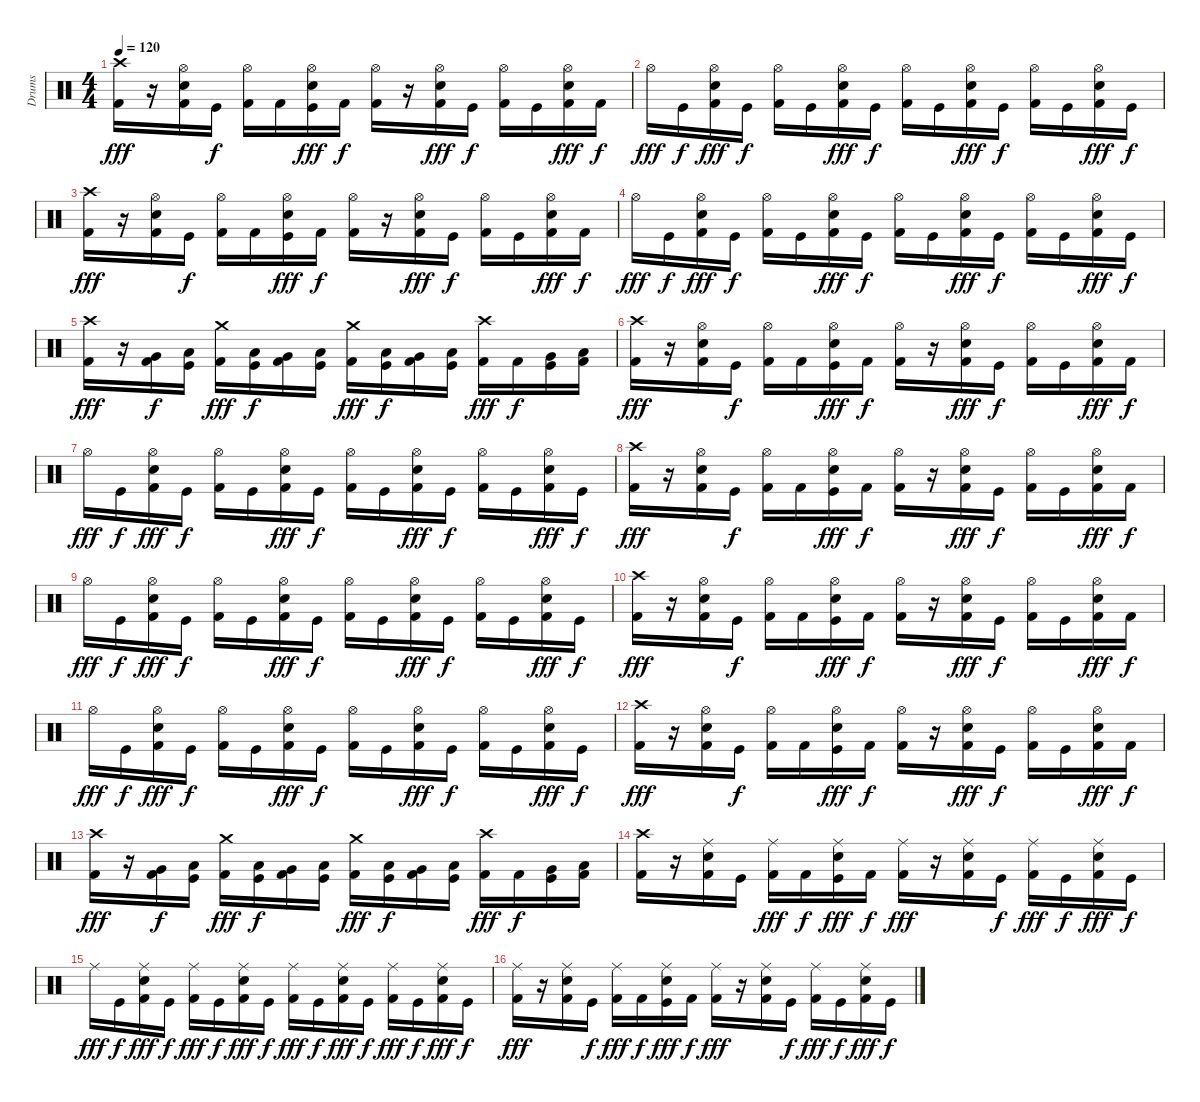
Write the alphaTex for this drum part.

\track ("Drums" "Drums") {instrument percussion}
\staff {score}
\articulation defaults
\ts (4 4)
\tempo 120
\clef neutral
\ks c
("Crash high (hit)" "Kick (hit) 2").16{dy fff} r.16 ("Hi-Hat (open)" "Snare (hit) 2" "Kick (hit) 2").16 "Kick (hit)".16{dy f} ("Hi-Hat (open)" "Kick (hit) 2").16 "Kick (hit) 2".16 ("Hi-Hat (open)" "Snare (hit) 2" "Kick (hit)").16{dy fff} "Kick (hit) 2".16{dy f} ("Hi-Hat (open)" "Kick (hit) 2").16 r.16 ("Hi-Hat (open)" "Snare (hit) 2" "Kick (hit) 2").16{dy fff} "Kick (hit)".16{dy f} ("Hi-Hat (open)" "Kick (hit) 2").16 "Kick (hit)".16 ("Hi-Hat (open)" "Snare (hit) 2" "Kick (hit) 2").16{dy fff} "Kick (hit) 2".16{dy f} |
"Hi-Hat (open)".16{dy fff} "Kick (hit)".16{dy f} ("Hi-Hat (open)" "Snare (hit) 2" "Kick (hit) 2").16{dy fff} "Kick (hit)".16{dy f} ("Hi-Hat (open)" "Kick (hit) 2").16 "Kick (hit)".16 ("Hi-Hat (open)" "Snare (hit) 2" "Kick (hit) 2").16{dy fff} "Kick (hit)".16{dy f} ("Hi-Hat (open)" "Kick (hit) 2").16 "Kick (hit)".16 ("Hi-Hat (open)" "Snare (hit) 2" "Kick (hit) 2").16{dy fff} "Kick (hit)".16{dy f} ("Hi-Hat (open)" "Kick (hit) 2").16 "Kick (hit)".16 ("Hi-Hat (open)" "Snare (hit) 2" "Kick (hit) 2").16{dy fff} "Kick (hit)".16{dy f} |
("Crash high (hit)" "Kick (hit) 2").16{dy fff} r.16 ("Hi-Hat (open)" "Snare (hit) 2" "Kick (hit) 2").16 "Kick (hit)".16{dy f} ("Hi-Hat (open)" "Kick (hit) 2").16 "Kick (hit) 2".16 ("Hi-Hat (open)" "Snare (hit) 2" "Kick (hit)").16{dy fff} "Kick (hit) 2".16{dy f} ("Hi-Hat (open)" "Kick (hit) 2").16 r.16 ("Hi-Hat (open)" "Snare (hit) 2" "Kick (hit) 2").16{dy fff} "Kick (hit)".16{dy f} ("Hi-Hat (open)" "Kick (hit) 2").16 "Kick (hit)".16 ("Hi-Hat (open)" "Snare (hit) 2" "Kick (hit) 2").16{dy fff} "Kick (hit) 2".16{dy f} |
"Hi-Hat (open)".16{dy fff} "Kick (hit)".16{dy f} ("Hi-Hat (open)" "Snare (hit) 2" "Kick (hit) 2").16{dy fff} "Kick (hit)".16{dy f} ("Hi-Hat (open)" "Kick (hit) 2").16 "Kick (hit)".16 ("Hi-Hat (open)" "Snare (hit) 2" "Kick (hit) 2").16{dy fff} "Kick (hit)".16{dy f} ("Hi-Hat (open)" "Kick (hit) 2").16 "Kick (hit)".16 ("Hi-Hat (open)" "Snare (hit) 2" "Kick (hit) 2").16{dy fff} "Kick (hit)".16{dy f} ("Hi-Hat (open)" "Kick (hit) 2").16 "Kick (hit)".16 ("Hi-Hat (open)" "Snare (hit) 2" "Kick (hit) 2").16{dy fff} "Kick (hit)".16{dy f} |
("Crash high (hit)" "Kick (hit) 2").16{dy fff} r.16 ("Very Low Tom (hit)" "Kick (hit) 2").16{dy f} ("Low Floor Tom (hit)" "Kick (hit)").16 ("Crash medium (hit)" "Kick (hit) 2").16{dy fff} ("Low Tom (hit)" "Kick (hit)").16{dy f} ("Very Low Tom (hit)" "Kick (hit) 2").16 ("Low Floor Tom (hit)" "Kick (hit)").16 ("Crash medium (hit)" "Kick (hit) 2").16{dy fff} ("Low Tom (hit)" "Kick (hit)").16{dy f} ("Very Low Tom (hit)" "Kick (hit) 2").16 ("Low Floor Tom (hit)" "Kick (hit)").16 ("Crash high (hit)" "Kick (hit) 2").16{dy fff} "Kick (hit) 2".16{dy f} ("Very Low Tom (hit)" "Kick (hit)").16 ("Low Floor Tom (hit)" "Kick (hit) 2").16 |
("Crash high (hit)" "Kick (hit) 2").16{dy fff} r.16 ("Hi-Hat (open)" "Snare (hit) 2" "Kick (hit) 2").16 "Kick (hit)".16{dy f} ("Hi-Hat (open)" "Kick (hit) 2").16 "Kick (hit) 2".16 ("Hi-Hat (open)" "Snare (hit) 2" "Kick (hit)").16{dy fff} "Kick (hit) 2".16{dy f} ("Hi-Hat (open)" "Kick (hit) 2").16 r.16 ("Hi-Hat (open)" "Snare (hit) 2" "Kick (hit) 2").16{dy fff} "Kick (hit)".16{dy f} ("Hi-Hat (open)" "Kick (hit) 2").16 "Kick (hit)".16 ("Hi-Hat (open)" "Snare (hit) 2" "Kick (hit) 2").16{dy fff} "Kick (hit) 2".16{dy f} |
"Hi-Hat (open)".16{dy fff} "Kick (hit)".16{dy f} ("Hi-Hat (open)" "Snare (hit) 2" "Kick (hit) 2").16{dy fff} "Kick (hit)".16{dy f} ("Hi-Hat (open)" "Kick (hit) 2").16 "Kick (hit)".16 ("Hi-Hat (open)" "Snare (hit) 2" "Kick (hit) 2").16{dy fff} "Kick (hit)".16{dy f} ("Hi-Hat (open)" "Kick (hit) 2").16 "Kick (hit)".16 ("Hi-Hat (open)" "Snare (hit) 2" "Kick (hit) 2").16{dy fff} "Kick (hit)".16{dy f} ("Hi-Hat (open)" "Kick (hit) 2").16 "Kick (hit)".16 ("Hi-Hat (open)" "Snare (hit) 2" "Kick (hit) 2").16{dy fff} "Kick (hit)".16{dy f} |
("Crash high (hit)" "Kick (hit) 2").16{dy fff} r.16 ("Hi-Hat (open)" "Snare (hit) 2" "Kick (hit) 2").16 "Kick (hit)".16{dy f} ("Hi-Hat (open)" "Kick (hit) 2").16 "Kick (hit) 2".16 ("Hi-Hat (open)" "Snare (hit) 2" "Kick (hit)").16{dy fff} "Kick (hit) 2".16{dy f} ("Hi-Hat (open)" "Kick (hit) 2").16 r.16 ("Hi-Hat (open)" "Snare (hit) 2" "Kick (hit) 2").16{dy fff} "Kick (hit)".16{dy f} ("Hi-Hat (open)" "Kick (hit) 2").16 "Kick (hit)".16 ("Hi-Hat (open)" "Snare (hit) 2" "Kick (hit) 2").16{dy fff} "Kick (hit) 2".16{dy f} |
"Hi-Hat (open)".16{dy fff} "Kick (hit)".16{dy f} ("Hi-Hat (open)" "Snare (hit) 2" "Kick (hit) 2").16{dy fff} "Kick (hit)".16{dy f} ("Hi-Hat (open)" "Kick (hit) 2").16 "Kick (hit)".16 ("Hi-Hat (open)" "Snare (hit) 2" "Kick (hit) 2").16{dy fff} "Kick (hit)".16{dy f} ("Hi-Hat (open)" "Kick (hit) 2").16 "Kick (hit)".16 ("Hi-Hat (open)" "Snare (hit) 2" "Kick (hit) 2").16{dy fff} "Kick (hit)".16{dy f} ("Hi-Hat (open)" "Kick (hit) 2").16 "Kick (hit)".16 ("Hi-Hat (open)" "Snare (hit) 2" "Kick (hit) 2").16{dy fff} "Kick (hit)".16{dy f} |
("Crash high (hit)" "Kick (hit) 2").16{dy fff} r.16 ("Hi-Hat (open)" "Snare (hit) 2" "Kick (hit) 2").16 "Kick (hit)".16{dy f} ("Hi-Hat (open)" "Kick (hit) 2").16 "Kick (hit) 2".16 ("Hi-Hat (open)" "Snare (hit) 2" "Kick (hit)").16{dy fff} "Kick (hit) 2".16{dy f} ("Hi-Hat (open)" "Kick (hit) 2").16 r.16 ("Hi-Hat (open)" "Snare (hit) 2" "Kick (hit) 2").16{dy fff} "Kick (hit)".16{dy f} ("Hi-Hat (open)" "Kick (hit) 2").16 "Kick (hit)".16 ("Hi-Hat (open)" "Snare (hit) 2" "Kick (hit) 2").16{dy fff} "Kick (hit) 2".16{dy f} |
"Hi-Hat (open)".16{dy fff} "Kick (hit)".16{dy f} ("Hi-Hat (open)" "Snare (hit) 2" "Kick (hit) 2").16{dy fff} "Kick (hit)".16{dy f} ("Hi-Hat (open)" "Kick (hit) 2").16 "Kick (hit)".16 ("Hi-Hat (open)" "Snare (hit) 2" "Kick (hit) 2").16{dy fff} "Kick (hit)".16{dy f} ("Hi-Hat (open)" "Kick (hit) 2").16 "Kick (hit)".16 ("Hi-Hat (open)" "Snare (hit) 2" "Kick (hit) 2").16{dy fff} "Kick (hit)".16{dy f} ("Hi-Hat (open)" "Kick (hit) 2").16 "Kick (hit)".16 ("Hi-Hat (open)" "Snare (hit) 2" "Kick (hit) 2").16{dy fff} "Kick (hit)".16{dy f} |
("Crash high (hit)" "Kick (hit) 2").16{dy fff} r.16 ("Hi-Hat (open)" "Snare (hit) 2" "Kick (hit) 2").16 "Kick (hit)".16{dy f} ("Hi-Hat (open)" "Kick (hit) 2").16 "Kick (hit) 2".16 ("Hi-Hat (open)" "Snare (hit) 2" "Kick (hit)").16{dy fff} "Kick (hit) 2".16{dy f} ("Hi-Hat (open)" "Kick (hit) 2").16 r.16 ("Hi-Hat (open)" "Snare (hit) 2" "Kick (hit) 2").16{dy fff} "Kick (hit)".16{dy f} ("Hi-Hat (open)" "Kick (hit) 2").16 "Kick (hit)".16 ("Hi-Hat (open)" "Snare (hit) 2" "Kick (hit) 2").16{dy fff} "Kick (hit) 2".16{dy f} |
("Crash high (hit)" "Kick (hit) 2").16{dy fff} r.16 ("Very Low Tom (hit)" "Kick (hit) 2").16{dy f} ("Low Floor Tom (hit)" "Kick (hit)").16 ("Crash medium (hit)" "Kick (hit) 2").16{dy fff} ("Low Tom (hit)" "Kick (hit)").16{dy f} ("Very Low Tom (hit)" "Kick (hit) 2").16 ("Low Floor Tom (hit)" "Kick (hit)").16 ("Crash medium (hit)" "Kick (hit) 2").16{dy fff} ("Low Tom (hit)" "Kick (hit)").16{dy f} ("Very Low Tom (hit)" "Kick (hit) 2").16 ("Low Floor Tom (hit)" "Kick (hit)").16 ("Crash high (hit)" "Kick (hit) 2").16{dy fff} "Kick (hit) 2".16{dy f} ("Very Low Tom (hit)" "Kick (hit)").16 ("Low Floor Tom (hit)" "Kick (hit) 2").16 |
("Crash high (hit)" "Kick (hit) 2").16 r.16 ("Ride (middle)" "Snare (hit) 2" "Kick (hit) 2").16 "Kick (hit)".16 ("Ride (middle)" "Kick (hit) 2").16{dy fff} "Kick (hit) 2".16{dy f} ("Ride (middle)" "Snare (hit) 2" "Kick (hit)").16{dy fff} "Kick (hit) 2".16{dy f} ("Ride (middle)" "Kick (hit) 2").16{dy fff} r.16 ("Ride (middle)" "Snare (hit) 2" "Kick (hit) 2").16 "Kick (hit)".16{dy f} ("Ride (middle)" "Kick (hit) 2").16{dy fff} "Kick (hit)".16{dy f} ("Ride (middle)" "Snare (hit) 2" "Kick (hit) 2").16{dy fff} "Kick (hit)".16{dy f} |
"Ride (middle)".16{dy fff} "Kick (hit)".16{dy f} ("Ride (middle)" "Snare (hit) 2" "Kick (hit) 2").16{dy fff} "Kick (hit)".16{dy f} ("Ride (middle)" "Kick (hit) 2").16{dy fff} "Kick (hit)".16{dy f} ("Ride (middle)" "Snare (hit) 2" "Kick (hit) 2").16{dy fff} "Kick (hit)".16{dy f} ("Ride (middle)" "Kick (hit) 2").16{dy fff} "Kick (hit)".16{dy f} ("Ride (middle)" "Snare (hit) 2" "Kick (hit) 2").16{dy fff} "Kick (hit)".16{dy f} ("Ride (middle)" "Kick (hit) 2").16{dy fff} "Kick (hit)".16{dy f} ("Ride (middle)" "Snare (hit) 2" "Kick (hit) 2").16{dy fff} "Kick (hit)".16{dy f} |
("Ride (middle)" "Kick (hit) 2").16{dy fff} r.16 ("Ride (middle)" "Snare (hit) 2" "Kick (hit) 2").16 "Kick (hit)".16{dy f} ("Ride (middle)" "Kick (hit) 2").16{dy fff} "Kick (hit) 2".16{dy f} ("Ride (middle)" "Snare (hit) 2" "Kick (hit)").16{dy fff} "Kick (hit) 2".16{dy f} ("Ride (middle)" "Kick (hit) 2").16{dy fff} r.16 ("Ride (middle)" "Snare (hit) 2" "Kick (hit) 2").16 "Kick (hit)".16{dy f} ("Ride (middle)" "Kick (hit) 2").16{dy fff} "Kick (hit)".16{dy f} ("Ride (middle)" "Snare (hit) 2" "Kick (hit) 2").16{dy fff} "Kick (hit)".16{dy f}
